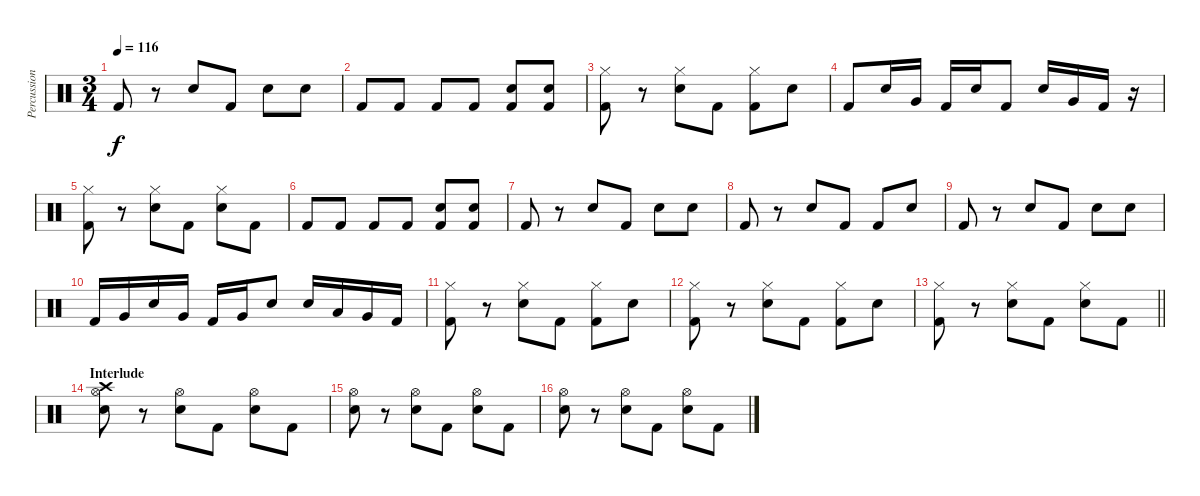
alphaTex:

\track ("Percussion" "Percussion") {instrument percussion}
\staff {score}
\articulation defaults
\ts (3 4)
\tempo 116
\clef neutral
\ks c "Kick (hit) 2".8{dy f}
r.8 "Electric Snare (hit)".8 "Kick (hit) 2".8 "Electric Snare (hit)".8 "Electric Snare (hit)".8 |
"Kick (hit) 2".8 "Kick (hit) 2".8 "Kick (hit) 2".8 "Kick (hit) 2".8 ("Electric Snare (hit)" "Kick (hit) 2").8 ("Electric Snare (hit)" "Kick (hit) 2").8 |
("Hi-Hat (closed)" "Kick (hit) 2").8 r.8 ("Hi-Hat (closed)" "Electric Snare (hit)").8 "Kick (hit) 2".8 ("Hi-Hat (closed)" "Kick (hit) 2").8 "Electric Snare (hit)".8 |
"Kick (hit) 2".8 "Electric Snare (hit)".16 "Very Low Tom (hit)".16 "Kick (hit) 2".16 "Electric Snare (hit)".16 "Kick (hit) 2".8 "Electric Snare (hit)".16 "Very Low Tom (hit)".16 "Kick (hit) 2".16 r.16 |
("Hi-Hat (closed)" "Kick (hit) 2").8 r.8 ("Hi-Hat (closed)" "Electric Snare (hit)").8 "Kick (hit) 2".8 ("Hi-Hat (closed)" "Electric Snare (hit)").8 "Kick (hit) 2".8 |
"Kick (hit) 2".8 "Kick (hit) 2".8 "Kick (hit) 2".8 "Kick (hit) 2".8 ("Electric Snare (hit)" "Kick (hit) 2").8 ("Electric Snare (hit)" "Kick (hit) 2").8 |
"Kick (hit) 2".8 r.8 "Electric Snare (hit)".8 "Kick (hit) 2".8 "Electric Snare (hit)".8 "Electric Snare (hit)".8 |
"Kick (hit) 2".8 r.8 "Electric Snare (hit)".8 "Kick (hit) 2".8 "Kick (hit) 2".8 "Electric Snare (hit)".8 |
"Kick (hit) 2".8 r.8 "Electric Snare (hit)".8 "Kick (hit) 2".8 "Electric Snare (hit)".8 "Electric Snare (hit)".8 |
"Kick (hit) 2".16 "Very Low Tom (hit)".16 "Electric Snare (hit)".16 "Very Low Tom (hit)".16 "Kick (hit) 2".16 "Very Low Tom (hit)".16 "Electric Snare (hit)".8 "Electric Snare (hit)".16 "Low Tom (hit)".16 "Very Low Tom (hit)".16 "Kick (hit) 2".16 |
("Hi-Hat (closed)" "Kick (hit) 2").8 r.8 ("Hi-Hat (closed)" "Electric Snare (hit)").8 "Kick (hit) 2".8 ("Hi-Hat (closed)" "Kick (hit) 2").8 "Electric Snare (hit)".8 |
("Hi-Hat (closed)" "Kick (hit) 2").8 r.8 ("Hi-Hat (closed)" "Electric Snare (hit)").8 "Kick (hit) 2".8 ("Hi-Hat (closed)" "Kick (hit) 2").8 "Electric Snare (hit)".8 |
\barLineRight lightlight
("Hi-Hat (closed)" "Kick (hit) 2").8 r.8 ("Hi-Hat (closed)" "Electric Snare (hit)").8 "Kick (hit) 2".8 ("Hi-Hat (closed)" "Electric Snare (hit)").8 "Kick (hit) 2".8 |
\section ("" "Interlude")
("Crash high (hit)" "Hi-Hat (open)" "Electric Snare (hit)").8{volume 16} r.8 ("Hi-Hat (open)" "Electric Snare (hit)").8 "Kick (hit) 2".8 ("Hi-Hat (open)" "Electric Snare (hit)").8 "Kick (hit) 2".8 |
("Hi-Hat (open)" "Electric Snare (hit)").8 r.8 ("Hi-Hat (open)" "Electric Snare (hit)").8 "Kick (hit) 2".8 ("Hi-Hat (open)" "Electric Snare (hit)").8 "Kick (hit) 2".8 |
("Hi-Hat (open)" "Electric Snare (hit)").8 r.8 ("Hi-Hat (open)" "Electric Snare (hit)").8 "Kick (hit) 2".8 ("Hi-Hat (open)" "Electric Snare (hit)").8 "Kick (hit) 2".8
